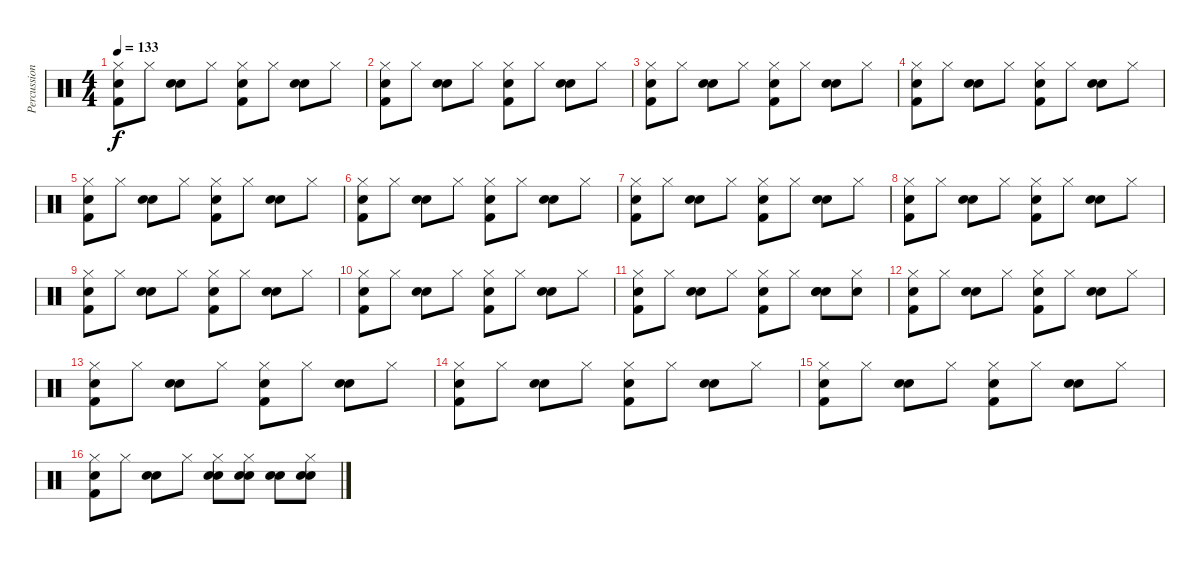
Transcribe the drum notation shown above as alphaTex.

\track ("Percussions" "Percussion") {instrument percussion}
\staff {score}
\articulation defaults
\ts (4 4)
\tempo 133
\clef neutral
\ks c
("Snare (hit) 2" "Kick (hit) 2" "Hi-Hat (closed)").8{dy f} "Hi-Hat (closed)".8 ("Electric Snare (hit)" "Electric Snare (hit)").8 "Hi-Hat (closed)".8 ("Snare (hit) 2" "Kick (hit) 2" "Hi-Hat (closed)").8 "Hi-Hat (closed)".8 ("Electric Snare (hit)" "Electric Snare (hit)").8 "Hi-Hat (closed)".8 |
("Snare (hit) 2" "Kick (hit) 2" "Hi-Hat (closed)").8 "Hi-Hat (closed)".8 ("Electric Snare (hit)" "Electric Snare (hit)").8 "Hi-Hat (closed)".8 ("Snare (hit) 2" "Kick (hit) 2" "Hi-Hat (closed)").8 "Hi-Hat (closed)".8 ("Electric Snare (hit)" "Electric Snare (hit)").8 "Hi-Hat (closed)".8 |
("Snare (hit) 2" "Kick (hit) 2" "Hi-Hat (closed)").8 "Hi-Hat (closed)".8 ("Electric Snare (hit)" "Electric Snare (hit)").8 "Hi-Hat (closed)".8 ("Snare (hit) 2" "Kick (hit) 2" "Hi-Hat (closed)").8 "Hi-Hat (closed)".8 ("Electric Snare (hit)" "Electric Snare (hit)").8 "Hi-Hat (closed)".8 |
("Snare (hit) 2" "Kick (hit) 2" "Hi-Hat (closed)").8 "Hi-Hat (closed)".8 ("Electric Snare (hit)" "Electric Snare (hit)").8 "Hi-Hat (closed)".8 ("Snare (hit) 2" "Kick (hit) 2" "Hi-Hat (closed)").8 "Hi-Hat (closed)".8 ("Electric Snare (hit)" "Electric Snare (hit)").8 "Hi-Hat (closed)".8 |
("Snare (hit) 2" "Kick (hit) 2" "Hi-Hat (closed)").8 "Hi-Hat (closed)".8 ("Electric Snare (hit)" "Electric Snare (hit)").8 "Hi-Hat (closed)".8 ("Snare (hit) 2" "Kick (hit) 2" "Hi-Hat (closed)").8 "Hi-Hat (closed)".8 ("Electric Snare (hit)" "Electric Snare (hit)").8 "Hi-Hat (closed)".8 |
("Snare (hit) 2" "Kick (hit) 2" "Hi-Hat (closed)").8 "Hi-Hat (closed)".8 ("Electric Snare (hit)" "Electric Snare (hit)").8 "Hi-Hat (closed)".8 ("Snare (hit) 2" "Kick (hit) 2" "Hi-Hat (closed)").8 "Hi-Hat (closed)".8 ("Electric Snare (hit)" "Electric Snare (hit)").8 "Hi-Hat (closed)".8 |
("Snare (hit) 2" "Kick (hit) 2" "Hi-Hat (closed)").8 "Hi-Hat (closed)".8 ("Electric Snare (hit)" "Electric Snare (hit)").8 "Hi-Hat (closed)".8 ("Snare (hit) 2" "Kick (hit) 2" "Hi-Hat (closed)").8 "Hi-Hat (closed)".8 ("Electric Snare (hit)" "Electric Snare (hit)").8 "Hi-Hat (closed)".8 |
("Snare (hit) 2" "Kick (hit) 2" "Hi-Hat (closed)").8 "Hi-Hat (closed)".8 ("Electric Snare (hit)" "Electric Snare (hit)").8 "Hi-Hat (closed)".8 ("Snare (hit) 2" "Kick (hit) 2" "Hi-Hat (closed)").8 "Hi-Hat (closed)".8 ("Electric Snare (hit)" "Electric Snare (hit)").8 "Hi-Hat (closed)".8 |
("Snare (hit) 2" "Kick (hit) 2" "Hi-Hat (closed)").8 "Hi-Hat (closed)".8 ("Electric Snare (hit)" "Electric Snare (hit)").8 "Hi-Hat (closed)".8 ("Snare (hit) 2" "Kick (hit) 2" "Hi-Hat (closed)").8 "Hi-Hat (closed)".8 ("Electric Snare (hit)" "Electric Snare (hit)").8 "Hi-Hat (closed)".8 |
("Snare (hit) 2" "Kick (hit) 2" "Hi-Hat (closed)").8 "Hi-Hat (closed)".8 ("Electric Snare (hit)" "Electric Snare (hit)").8 "Hi-Hat (closed)".8 ("Snare (hit) 2" "Kick (hit) 2" "Hi-Hat (closed)").8 "Hi-Hat (closed)".8 ("Electric Snare (hit)" "Electric Snare (hit)").8 "Hi-Hat (closed)".8 |
("Snare (hit) 2" "Kick (hit) 2" "Hi-Hat (closed)").8 "Hi-Hat (closed)".8 ("Electric Snare (hit)" "Electric Snare (hit)").8 "Hi-Hat (closed)".8 ("Snare (hit) 2" "Kick (hit) 2" "Hi-Hat (closed)").8 "Hi-Hat (closed)".8 ("Electric Snare (hit)" "Electric Snare (hit)" "Snare (hit) 2").8 ("Snare (hit) 2" "Hi-Hat (closed)").8 |
("Snare (hit) 2" "Kick (hit) 2" "Hi-Hat (closed)").8 "Hi-Hat (closed)".8 ("Electric Snare (hit)" "Electric Snare (hit)").8 "Hi-Hat (closed)".8 ("Snare (hit) 2" "Kick (hit) 2" "Hi-Hat (closed)").8 "Hi-Hat (closed)".8 ("Electric Snare (hit)" "Electric Snare (hit)").8 "Hi-Hat (closed)".8 |
("Snare (hit) 2" "Kick (hit) 2" "Hi-Hat (closed)").8 "Hi-Hat (closed)".8 ("Electric Snare (hit)" "Electric Snare (hit)").8 "Hi-Hat (closed)".8 ("Snare (hit) 2" "Kick (hit) 2" "Hi-Hat (closed)").8 "Hi-Hat (closed)".8 ("Electric Snare (hit)" "Electric Snare (hit)").8 "Hi-Hat (closed)".8 |
("Snare (hit) 2" "Kick (hit) 2" "Hi-Hat (closed)").8 "Hi-Hat (closed)".8 ("Electric Snare (hit)" "Electric Snare (hit)").8 "Hi-Hat (closed)".8 ("Snare (hit) 2" "Kick (hit) 2" "Hi-Hat (closed)").8 "Hi-Hat (closed)".8 ("Electric Snare (hit)" "Electric Snare (hit)").8 "Hi-Hat (closed)".8 |
("Snare (hit) 2" "Kick (hit) 2" "Hi-Hat (closed)").8 "Hi-Hat (closed)".8 ("Electric Snare (hit)" "Electric Snare (hit)").8 "Hi-Hat (closed)".8 ("Snare (hit) 2" "Kick (hit) 2" "Hi-Hat (closed)").8 "Hi-Hat (closed)".8 ("Electric Snare (hit)" "Electric Snare (hit)").8 "Hi-Hat (closed)".8 |
("Snare (hit) 2" "Kick (hit) 2" "Hi-Hat (closed)").8 "Hi-Hat (closed)".8 ("Electric Snare (hit)" "Electric Snare (hit)").8 "Hi-Hat (closed)".8 ("Electric Snare (hit)" "Electric Snare (hit)" "Hi-Hat (closed)").8 ("Electric Snare (hit)" "Electric Snare (hit)" "Hi-Hat (closed)").8 ("Electric Snare (hit)" "Electric Snare (hit)").8 ("Electric Snare (hit)" "Electric Snare (hit)" "Hi-Hat (closed)").8
